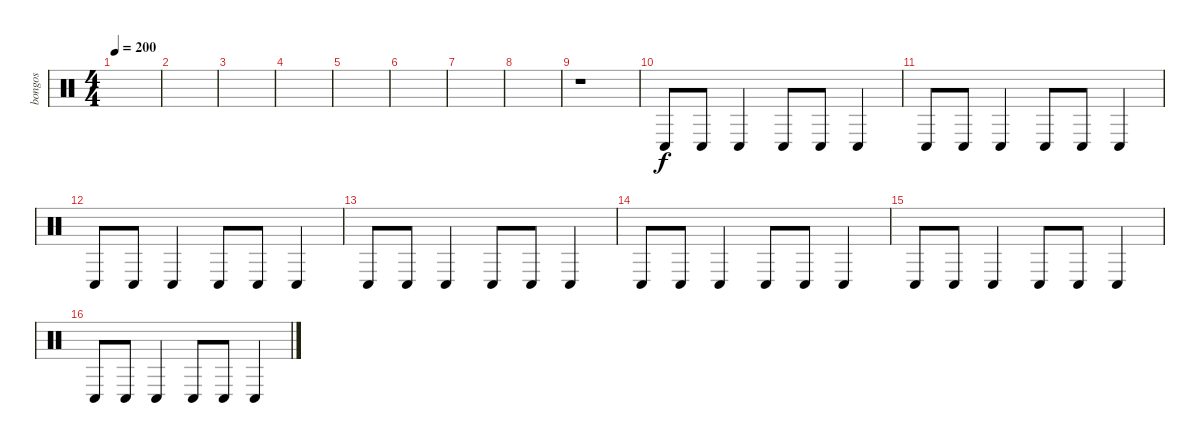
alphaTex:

\track ("bongos" "bongos") {instrument percussion}
\staff {score}
\articulation defaults
\ts (4 4)
\tempo 200
\clef neutral
\ks c
|
|
|
|
|
|
|
|
r.1 |
"Conga low (hit)".8 "Conga low (hit)".8 "Conga low (hit)".4 "Conga low (hit)".8 "Conga low (hit)".8 "Conga low (hit)".4 |
"Conga low (hit)".8 "Conga low (hit)".8 "Conga low (hit)".4 "Conga low (hit)".8 "Conga low (hit)".8 "Conga low (hit)".4 |
"Conga low (hit)".8 "Conga low (hit)".8 "Conga low (hit)".4 "Conga low (hit)".8 "Conga low (hit)".8 "Conga low (hit)".4 |
"Conga low (hit)".8 "Conga low (hit)".8 "Conga low (hit)".4 "Conga low (hit)".8 "Conga low (hit)".8 "Conga low (hit)".4 |
"Conga low (hit)".8 "Conga low (hit)".8 "Conga low (hit)".4 "Conga low (hit)".8 "Conga low (hit)".8 "Conga low (hit)".4 |
"Conga low (hit)".8 "Conga low (hit)".8 "Conga low (hit)".4 "Conga low (hit)".8 "Conga low (hit)".8 "Conga low (hit)".4 |
"Conga low (hit)".8 "Conga low (hit)".8 "Conga low (hit)".4 "Conga low (hit)".8 "Conga low (hit)".8 "Conga low (hit)".4
